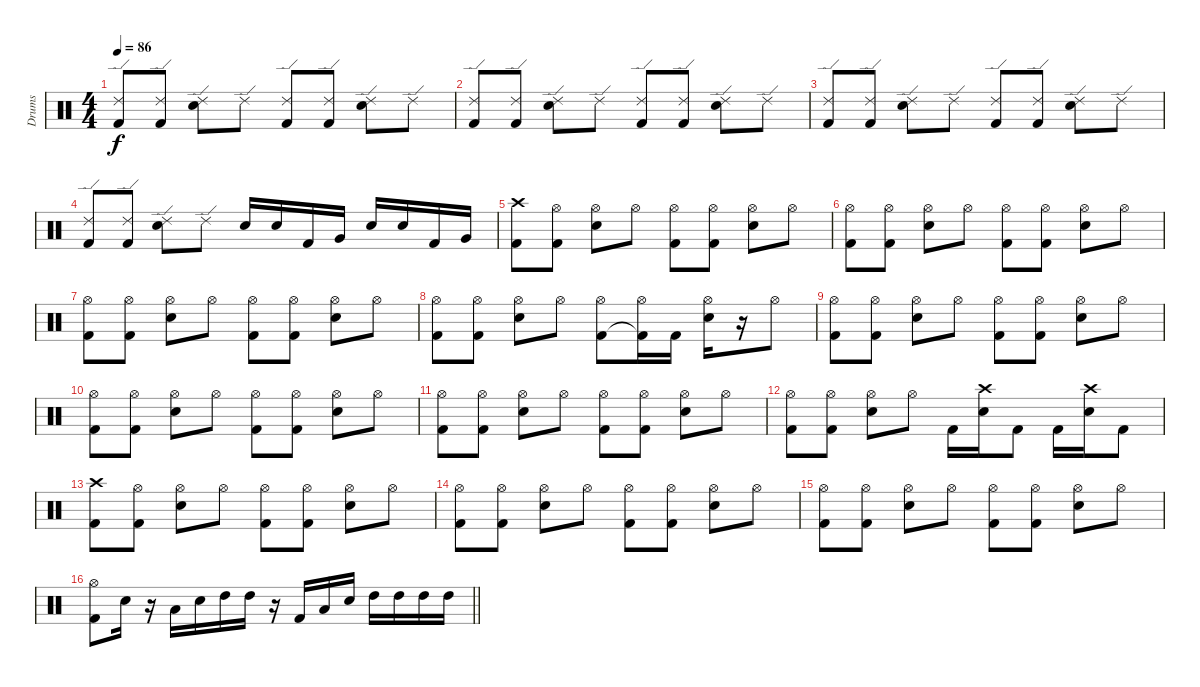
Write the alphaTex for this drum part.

\track ("Drums" "Drums") {instrument percussion}
\staff {score}
\articulation defaults
\ts (4 4)
\tempo 86
\clef neutral
\ks aminor
("Ride (edge) 2" "Kick (hit) 2").8{dy f} ("Ride (edge) 2" "Kick (hit) 2").8 ("Ride (edge) 2" "Snare (hit) 2").8 "Ride (edge) 2".8 ("Ride (edge) 2" "Kick (hit) 2").8 ("Ride (edge) 2" "Kick (hit) 2").8 ("Ride (edge) 2" "Snare (hit) 2").8 "Ride (edge) 2".8 |
("Ride (edge) 2" "Kick (hit) 2").8 ("Ride (edge) 2" "Kick (hit) 2").8 ("Ride (edge) 2" "Snare (hit) 2").8 "Ride (edge) 2".8 ("Ride (edge) 2" "Kick (hit) 2").8 ("Ride (edge) 2" "Kick (hit) 2").8 ("Ride (edge) 2" "Snare (hit) 2").8 "Ride (edge) 2".8 |
("Ride (edge) 2" "Kick (hit) 2").8 ("Ride (edge) 2" "Kick (hit) 2").8 ("Ride (edge) 2" "Snare (hit) 2").8 "Ride (edge) 2".8 ("Ride (edge) 2" "Kick (hit) 2").8 ("Ride (edge) 2" "Kick (hit) 2").8 ("Ride (edge) 2" "Snare (hit) 2").8 "Ride (edge) 2".8 |
("Ride (edge) 2" "Kick (hit) 2").8 ("Ride (edge) 2" "Kick (hit) 2").8 ("Ride (edge) 2" "Snare (hit) 2").8 "Ride (edge) 2".8 "Snare (hit) 2".16 "Snare (hit) 2".16 "Kick (hit) 2".16 "Very Low Tom (hit)".16 "Snare (hit) 2".16 "Snare (hit) 2".16 "Kick (hit) 2".16 "Very Low Tom (hit)".16 |
("Crash high (hit)" "Kick (hit) 2").8 ("Hi-Hat (open)" "Kick (hit) 2").8 ("Hi-Hat (open)" "Snare (hit) 2").8 "Hi-Hat (open)".8 ("Hi-Hat (open)" "Kick (hit) 2").8 ("Hi-Hat (open)" "Kick (hit) 2").8 ("Hi-Hat (open)" "Snare (hit) 2").8 "Hi-Hat (open)".8 |
("Hi-Hat (open)" "Kick (hit) 2").8 ("Hi-Hat (open)" "Kick (hit) 2").8 ("Hi-Hat (open)" "Snare (hit) 2").8 "Hi-Hat (open)".8 ("Hi-Hat (open)" "Kick (hit) 2").8 ("Hi-Hat (open)" "Kick (hit) 2").8 ("Hi-Hat (open)" "Snare (hit) 2").8 "Hi-Hat (open)".8 |
("Hi-Hat (open)" "Kick (hit) 2").8 ("Hi-Hat (open)" "Kick (hit) 2").8 ("Hi-Hat (open)" "Snare (hit) 2").8 "Hi-Hat (open)".8 ("Hi-Hat (open)" "Kick (hit) 2").8 ("Hi-Hat (open)" "Kick (hit) 2").8 ("Hi-Hat (open)" "Snare (hit) 2").8 "Hi-Hat (open)".8 |
("Hi-Hat (open)" "Kick (hit) 2").8 ("Hi-Hat (open)" "Kick (hit) 2").8 ("Hi-Hat (open)" "Snare (hit) 2").8 "Hi-Hat (open)".8 ("Hi-Hat (open)" "Kick (hit) 2").8 ("Hi-Hat (open)" "Kick (hit) 2"{t}).16 "Kick (hit) 2".16 ("Hi-Hat (open)" "Snare (hit) 2").16 r.16 "Hi-Hat (open)".8 |
("Hi-Hat (open)" "Kick (hit) 2").8 ("Hi-Hat (open)" "Kick (hit) 2").8 ("Hi-Hat (open)" "Snare (hit) 2").8 "Hi-Hat (open)".8 ("Hi-Hat (open)" "Kick (hit) 2").8 ("Hi-Hat (open)" "Kick (hit) 2").8 ("Hi-Hat (open)" "Snare (hit) 2").8 "Hi-Hat (open)".8 |
("Hi-Hat (open)" "Kick (hit) 2").8 ("Hi-Hat (open)" "Kick (hit) 2").8 ("Hi-Hat (open)" "Snare (hit) 2").8 "Hi-Hat (open)".8 ("Hi-Hat (open)" "Kick (hit) 2").8 ("Hi-Hat (open)" "Kick (hit) 2").8 ("Hi-Hat (open)" "Snare (hit) 2").8 "Hi-Hat (open)".8 |
("Hi-Hat (open)" "Kick (hit) 2").8 ("Hi-Hat (open)" "Kick (hit) 2").8 ("Hi-Hat (open)" "Snare (hit) 2").8 "Hi-Hat (open)".8 ("Hi-Hat (open)" "Kick (hit) 2").8 ("Hi-Hat (open)" "Kick (hit) 2").8 ("Hi-Hat (open)" "Snare (hit) 2").8 "Hi-Hat (open)".8 |
("Hi-Hat (open)" "Kick (hit) 2").8 ("Hi-Hat (open)" "Kick (hit) 2").8 ("Hi-Hat (open)" "Snare (hit) 2").8 "Hi-Hat (open)".8 "Kick (hit) 2".16 ("Crash high (hit)" "Snare (hit) 2").16 "Kick (hit) 2".8 "Kick (hit) 2".16 ("Crash high (hit)" "Snare (hit) 2").16 "Kick (hit) 2".8 |
("Crash high (hit)" "Kick (hit) 2").8 ("Hi-Hat (open)" "Kick (hit) 2").8 ("Hi-Hat (open)" "Snare (hit) 2").8 "Hi-Hat (open)".8 ("Hi-Hat (open)" "Kick (hit) 2").8 ("Hi-Hat (open)" "Kick (hit) 2").8 ("Hi-Hat (open)" "Snare (hit) 2").8 "Hi-Hat (open)".8 |
("Hi-Hat (open)" "Kick (hit) 2").8 ("Hi-Hat (open)" "Kick (hit) 2").8 ("Hi-Hat (open)" "Snare (hit) 2").8 "Hi-Hat (open)".8 ("Hi-Hat (open)" "Kick (hit) 2").8 ("Hi-Hat (open)" "Kick (hit) 2").8 ("Hi-Hat (open)" "Snare (hit) 2").8 "Hi-Hat (open)".8 |
("Hi-Hat (open)" "Kick (hit) 2").8 ("Hi-Hat (open)" "Kick (hit) 2").8 ("Hi-Hat (open)" "Snare (hit) 2").8 "Hi-Hat (open)".8 ("Hi-Hat (open)" "Kick (hit) 2").8 ("Hi-Hat (open)" "Kick (hit) 2").8 ("Hi-Hat (open)" "Snare (hit) 2").8 "Hi-Hat (open)".8 |
\barLineRight lightlight
("Hi-Hat (open)" "Kick (hit) 2").8 "Snare (hit) 2".16 r.16 "Low Tom (hit)".16 "Snare (hit) 2".16 "High Tom (hit)".16 "High Tom (hit)".16 r.16 "Kick (hit) 2".16 "Low Tom (hit)".16 "Snare (hit) 2".16 "High Tom (hit)".16 "High Tom (hit)".16 "High Tom (hit)".16 "High Tom (hit)".16
